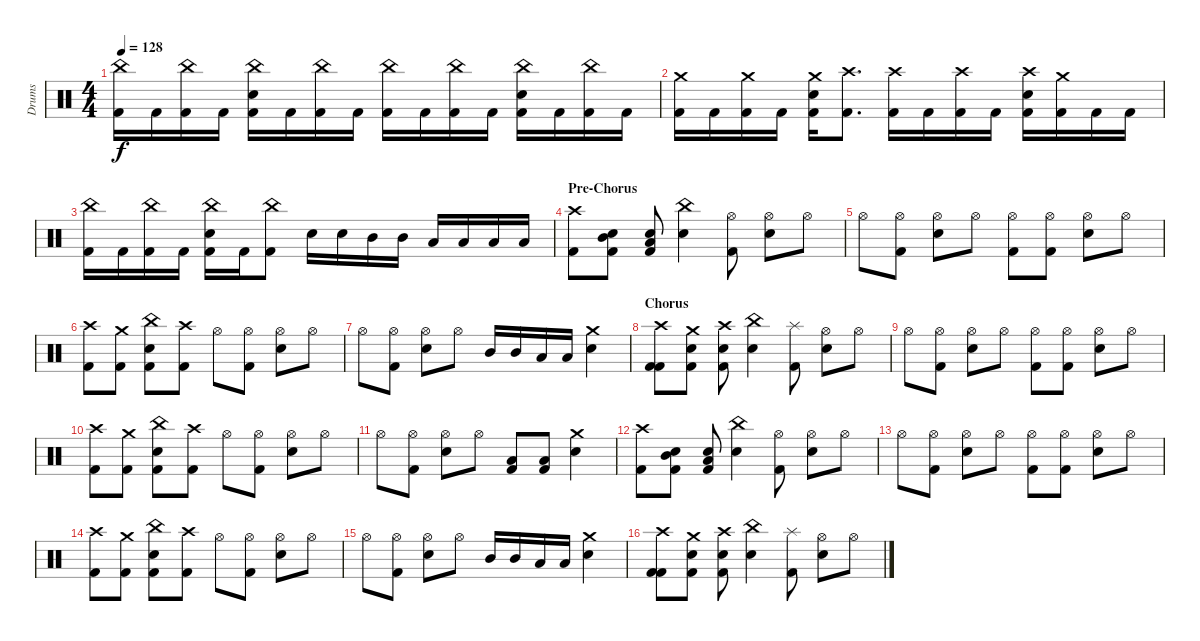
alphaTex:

\track ("Drums" "Drums") {instrument percussion}
\staff {score}
\articulation defaults
\ts (4 4)
\tempo 128
\clef neutral
\ks c
("China (hit)" "Kick (hit) 2").16{dy f} "Kick (hit) 2".16 ("China (hit)" "Kick (hit) 2").16 "Kick (hit) 2".16 ("China (hit)" "Snare (hit) 2" "Kick (hit) 2").16 "Kick (hit) 2".16 ("China (hit)" "Kick (hit) 2").16 "Kick (hit) 2".16 ("China (hit)" "Kick (hit) 2").16 "Kick (hit) 2".16 ("China (hit)" "Kick (hit) 2").16 "Kick (hit) 2".16 ("China (hit)" "Snare (hit) 2" "Kick (hit) 2").16 "Kick (hit) 2".16 ("China (hit)" "Kick (hit) 2").16 "Kick (hit) 2".16 |
("Crash medium (hit)" "Kick (hit) 2").16 "Kick (hit) 2".16 ("Crash medium (hit)" "Kick (hit) 2").16 "Kick (hit) 2".16 ("Crash medium (hit)" "Snare (hit) 2" "Kick (hit) 2").16 ("Crash high (hit)" "Kick (hit) 2").8{d} ("Crash high (hit)" "Kick (hit) 2").16 "Kick (hit) 2".16 ("Crash high (hit)" "Kick (hit) 2").16 "Kick (hit) 2".16 ("Crash high (hit)" "Snare (hit) 2" "Kick (hit) 2").16 ("Crash medium (hit)" "Kick (hit) 2").16 "Kick (hit) 2".16 "Kick (hit) 2".16 |
("China (hit)" "Kick (hit) 2").16 "Kick (hit) 2".16 ("China (hit)" "Kick (hit) 2").16 "Kick (hit) 2".16 ("China (hit)" "Snare (hit) 2" "Kick (hit) 2").16 "Kick (hit) 2".16 ("China (hit)" "Kick (hit) 2").8 "Snare (hit) 2".16 "Snare (hit) 2".16 "Mid Tom (hit)".16 "Mid Tom (hit)".16 "Low Tom (hit)".16 "Low Tom (hit)".16 "Low Floor Tom (hit)".16 "Low Floor Tom (hit)".16 |
\section ("" "Pre-Chorus")
("Crash high (hit)" "Kick (hit) 2").8 ("Snare (hit) 2" "Mid Tom (hit)" "Kick (hit) 2").8 ("Snare (hit) 2" "Low Tom (hit)" "Kick (hit) 2").8 ("China (hit)" "Snare (hit) 2").4 ("Hi-Hat (open)" "Kick (hit) 2").8 ("Hi-Hat (open)" "Snare (hit) 2").8 "Hi-Hat (open)".8 |
"Hi-Hat (open)".8 ("Hi-Hat (open)" "Kick (hit) 2").8 ("Hi-Hat (open)" "Snare (hit) 2").8 "Hi-Hat (open)".8 ("Hi-Hat (open)" "Kick (hit) 2").8 ("Hi-Hat (open)" "Kick (hit) 2").8 ("Hi-Hat (open)" "Snare (hit) 2").8 "Hi-Hat (open)".8 |
("Crash high (hit)" "Kick (hit) 2").8 ("Crash medium (hit)" "Kick (hit) 2").8 ("China (hit)" "Snare (hit) 2" "Kick (hit) 2").8 ("Crash high (hit)" "Kick (hit) 2").8 "Hi-Hat (open)".8 ("Hi-Hat (open)" "Kick (hit) 2").8 ("Hi-Hat (open)" "Snare (hit) 2").8 "Hi-Hat (open)".8 |
"Hi-Hat (open)".8 ("Hi-Hat (open)" "Kick (hit) 2").8 ("Hi-Hat (open)" "Snare (hit) 2").8 "Hi-Hat (open)".8 "Mid Tom (hit)".16 "Mid Tom (hit)".16 "Low Tom (hit)".16 "Low Tom (hit)".16 ("Crash medium (hit)" "Snare (hit) 2").4 |
\section ("" "Chorus")
("Crash high (hit)" "Kick (hit) 2" "Kick (hit) 2").8 ("Crash medium (hit)" "Snare (hit) 2" "Kick (hit) 2").8 ("Crash high (hit)" "Snare (hit) 2" "Kick (hit) 2").8 ("China (hit)" "Snare (hit) 2").4 ("Splash (hit)" "Kick (hit) 2").8 ("Hi-Hat (open)" "Snare (hit) 2").8 "Hi-Hat (open)".8 |
"Hi-Hat (open)".8 ("Hi-Hat (open)" "Kick (hit) 2").8 ("Hi-Hat (open)" "Snare (hit) 2").8 "Hi-Hat (open)".8 ("Hi-Hat (open)" "Kick (hit) 2").8 ("Hi-Hat (open)" "Kick (hit) 2").8 ("Hi-Hat (open)" "Snare (hit) 2").8 "Hi-Hat (open)".8 |
("Crash high (hit)" "Kick (hit) 2").8 ("Crash medium (hit)" "Kick (hit) 2").8 ("China (hit)" "Snare (hit) 2" "Kick (hit) 2").8 ("Crash high (hit)" "Kick (hit) 2").8 "Hi-Hat (open)".8 ("Hi-Hat (open)" "Kick (hit) 2").8 ("Hi-Hat (open)" "Snare (hit) 2").8 "Hi-Hat (open)".8 |
"Hi-Hat (open)".8 ("Hi-Hat (open)" "Kick (hit) 2").8 ("Hi-Hat (open)" "Snare (hit) 2").8 "Hi-Hat (open)".8 ("Low Tom (hit)" "Kick (hit) 2").8 ("Low Floor Tom (hit)" "Kick (hit) 2").8 ("Crash medium (hit)" "Snare (hit) 2").4 |
("Crash high (hit)" "Kick (hit) 2").8 ("Snare (hit) 2" "Mid Tom (hit)" "Kick (hit) 2").8 ("Snare (hit) 2" "Low Tom (hit)" "Kick (hit) 2").8 ("China (hit)" "Snare (hit) 2").4 ("Hi-Hat (open)" "Kick (hit) 2").8 ("Hi-Hat (open)" "Snare (hit) 2").8 "Hi-Hat (open)".8 |
"Hi-Hat (open)".8 ("Hi-Hat (open)" "Kick (hit) 2").8 ("Hi-Hat (open)" "Snare (hit) 2").8 "Hi-Hat (open)".8 ("Hi-Hat (open)" "Kick (hit) 2").8 ("Hi-Hat (open)" "Kick (hit) 2").8 ("Hi-Hat (open)" "Snare (hit) 2").8 "Hi-Hat (open)".8 |
("Crash high (hit)" "Kick (hit) 2").8 ("Crash medium (hit)" "Kick (hit) 2").8 ("China (hit)" "Snare (hit) 2" "Kick (hit) 2").8 ("Crash high (hit)" "Kick (hit) 2").8 "Hi-Hat (open)".8 ("Hi-Hat (open)" "Kick (hit) 2").8 ("Hi-Hat (open)" "Snare (hit) 2").8 "Hi-Hat (open)".8 |
"Hi-Hat (open)".8 ("Hi-Hat (open)" "Kick (hit) 2").8 ("Hi-Hat (open)" "Snare (hit) 2").8 "Hi-Hat (open)".8 "Mid Tom (hit)".16 "Mid Tom (hit)".16 "Low Tom (hit)".16 "Low Tom (hit)".16 ("Crash medium (hit)" "Snare (hit) 2").4 |
("Crash high (hit)" "Kick (hit) 2" "Kick (hit) 2").8 ("Crash medium (hit)" "Snare (hit) 2" "Kick (hit) 2").8 ("Crash high (hit)" "Snare (hit) 2" "Kick (hit) 2").8 ("China (hit)" "Snare (hit) 2").4 ("Splash (hit)" "Kick (hit) 2").8 ("Hi-Hat (open)" "Snare (hit) 2").8 "Hi-Hat (open)".8
